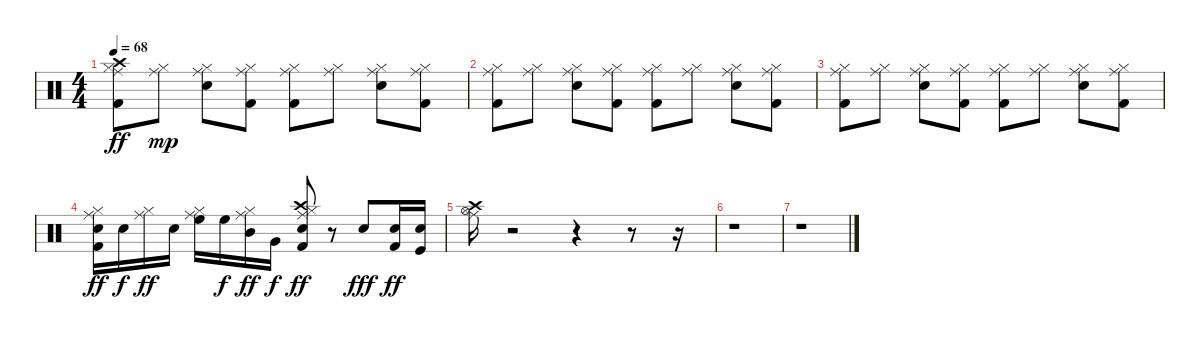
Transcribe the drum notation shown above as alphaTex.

\track "" {instrument percussion}
\staff {score}
\articulation defaults
\ts (4 4)
\tempo 68
\clef neutral
\ks c
("Kick (hit) 2" "Hi-Hat (closed)" "Crash high (hit)" "Ride (middle)").8{dy ff} ("Hi-Hat (closed)" "Ride (middle)").8{dy mp} ("Electric Snare (hit)" "Hi-Hat (closed)" "Ride (middle)").8 ("Kick (hit) 2" "Hi-Hat (closed)" "Ride (middle)").8 ("Kick (hit) 2" "Hi-Hat (closed)" "Ride (middle)").8 ("Hi-Hat (closed)" "Ride (middle)").8 ("Electric Snare (hit)" "Hi-Hat (closed)" "Ride (middle)").8 ("Kick (hit) 2" "Hi-Hat (closed)" "Ride (middle)").8 |
("Kick (hit) 2" "Hi-Hat (closed)" "Ride (middle)").8 ("Hi-Hat (closed)" "Ride (middle)").8 ("Electric Snare (hit)" "Hi-Hat (closed)" "Ride (middle)").8 ("Kick (hit) 2" "Hi-Hat (closed)" "Ride (middle)").8 ("Kick (hit) 2" "Hi-Hat (closed)" "Ride (middle)").8 ("Hi-Hat (closed)" "Ride (middle)").8 ("Electric Snare (hit)" "Hi-Hat (closed)" "Ride (middle)").8 ("Kick (hit) 2" "Hi-Hat (closed)" "Ride (middle)").8 |
("Kick (hit) 2" "Hi-Hat (closed)" "Ride (middle)").8 ("Hi-Hat (closed)" "Ride (middle)").8 ("Electric Snare (hit)" "Hi-Hat (closed)" "Ride (middle)").8 ("Kick (hit) 2" "Hi-Hat (closed)" "Ride (middle)").8 ("Kick (hit) 2" "Hi-Hat (closed)" "Ride (middle)").8 ("Hi-Hat (closed)" "Ride (middle)").8 ("Electric Snare (hit)" "Hi-Hat (closed)" "Ride (middle)").8 ("Kick (hit) 2" "Hi-Hat (closed)" "Ride (middle)").8 |
("Kick (hit) 2" "Electric Snare (hit)" "Hi-Hat (closed)" "Ride (middle)").16{dy ff} "Electric Snare (hit)".16{dy f} ("Hi-Hat (closed)" "Ride (middle)").16{dy ff} "Electric Snare (hit)".16 ("Hi-Hat (closed)" "High Floor Tom (hit)" "Ride (middle)").16 "High Floor Tom (hit)".16{dy f} ("Hi-Hat (closed)" "Mid Tom (hit)" "Ride (middle)").16{dy ff} "Very Low Tom (hit)".16{dy f} ("Kick (hit) 2" "Electric Snare (hit)" "Hi-Hat (closed)" "Crash high (hit)" "Ride (middle)").8{dy ff} r.8 "Electric Snare (hit)".8{dy fff} ("Kick (hit) 2" "Electric Snare (hit)").16{dy ff} ("Kick (hit)" "Electric Snare (hit)").16 |
("Hi-Hat (open)" "Crash high (hit)" "Ride (middle)").16 r.2 r.4 r.8 r.16 |
r.1 |
r.1
